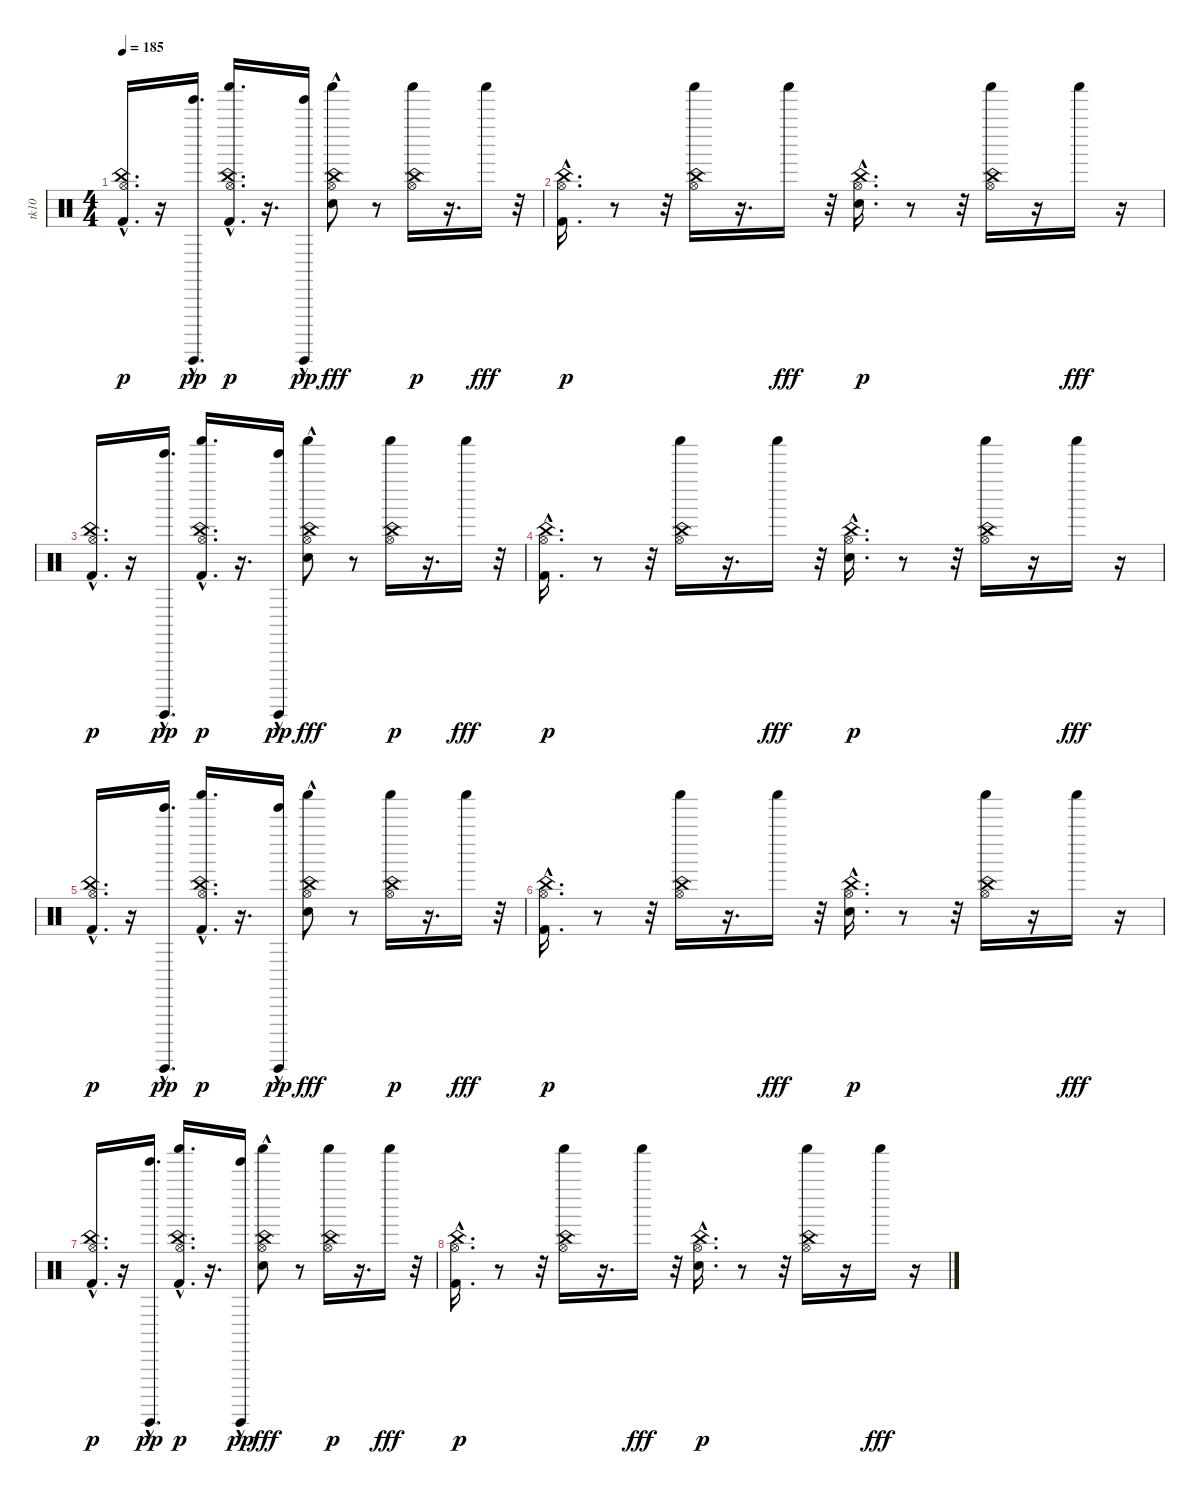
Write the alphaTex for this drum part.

\track ("tk10" "tk10") {instrument percussion}
\staff {score}
\articulation defaults
\ts (4 4)
\tempo 185
\clef neutral
\ks c
("Kick (hit) 2"{hac} "Hi-Hat (open)" "China (hit)").16{d dy p} r.16 ("Guiro (hit)" "Tinkle Bell (hit)"{hac}).16{d dy pp} ("Shaker (hit)" "Kick (hit) 2"{hac} "Hi-Hat (open)" "China (hit)").16{d dy p} r.16{d} ("Guiro (hit)" "Tinkle Bell (hit)"{hac}).16{dy pp} ("Electric Snare (hit)" "Hi-Hat (open)" "China (hit)" "Shaker (hit)"{hac}).8{dy fff} r.8 ("Shaker (hit)" "Hi-Hat (open)" "China (hit)").16{dy p} r.16{d} "Shaker (hit)".16{dy fff} r.32 |
("Kick (hit) 2"{hac} "Hi-Hat (open)" "China (hit)").16{d dy p} r.8 r.32 ("Shaker (hit)" "Hi-Hat (open)" "China (hit)").16 r.16{d} "Shaker (hit)".16{dy fff} r.32 ("Electric Snare (hit)"{hac} "Hi-Hat (open)" "China (hit)").16{d dy p} r.8 r.32 ("Shaker (hit)" "Hi-Hat (open)" "China (hit)").16 r.16 "Shaker (hit)".16{dy fff} r.16 |
("Kick (hit) 2"{hac} "Hi-Hat (open)" "China (hit)").16{d dy p} r.16 ("Guiro (hit)" "Tinkle Bell (hit)"{hac}).16{d dy pp} ("Shaker (hit)" "Kick (hit) 2"{hac} "Hi-Hat (open)" "China (hit)").16{d dy p} r.16{d} ("Guiro (hit)" "Tinkle Bell (hit)"{hac}).16{dy pp} ("Electric Snare (hit)" "Hi-Hat (open)" "China (hit)" "Shaker (hit)"{hac}).8{dy fff} r.8 ("Shaker (hit)" "Hi-Hat (open)" "China (hit)").16{dy p} r.16{d} "Shaker (hit)".16{dy fff} r.32 |
("Kick (hit) 2"{hac} "Hi-Hat (open)" "China (hit)").16{d dy p} r.8 r.32 ("Shaker (hit)" "Hi-Hat (open)" "China (hit)").16 r.16{d} "Shaker (hit)".16{dy fff} r.32 ("Electric Snare (hit)"{hac} "Hi-Hat (open)" "China (hit)").16{d dy p} r.8 r.32 ("Shaker (hit)" "Hi-Hat (open)" "China (hit)").16 r.16 "Shaker (hit)".16{dy fff} r.16 |
("Kick (hit) 2"{hac} "Hi-Hat (open)" "China (hit)").16{d dy p} r.16 ("Guiro (hit)" "Tinkle Bell (hit)"{hac}).16{d dy pp} ("Shaker (hit)" "Kick (hit) 2"{hac} "Hi-Hat (open)" "China (hit)").16{d dy p} r.16{d} ("Guiro (hit)" "Tinkle Bell (hit)"{hac}).16{dy pp} ("Electric Snare (hit)" "Hi-Hat (open)" "China (hit)" "Shaker (hit)"{hac}).8{dy fff} r.8 ("Shaker (hit)" "Hi-Hat (open)" "China (hit)").16{dy p} r.16{d} "Shaker (hit)".16{dy fff} r.32 |
("Kick (hit) 2"{hac} "Hi-Hat (open)" "China (hit)").16{d dy p} r.8 r.32 ("Shaker (hit)" "Hi-Hat (open)" "China (hit)").16 r.16{d} "Shaker (hit)".16{dy fff} r.32 ("Electric Snare (hit)"{hac} "Hi-Hat (open)" "China (hit)").16{d dy p} r.8 r.32 ("Shaker (hit)" "Hi-Hat (open)" "China (hit)").16 r.16 "Shaker (hit)".16{dy fff} r.16 |
("Kick (hit) 2"{hac} "Hi-Hat (open)" "China (hit)").16{d dy p} r.16 ("Guiro (hit)" "Tinkle Bell (hit)"{hac}).16{d dy pp} ("Shaker (hit)" "Kick (hit) 2"{hac} "Hi-Hat (open)" "China (hit)").16{d dy p} r.16{d} ("Guiro (hit)" "Tinkle Bell (hit)"{hac}).16{dy pp} ("Electric Snare (hit)" "Hi-Hat (open)" "China (hit)" "Shaker (hit)"{hac}).8{dy fff} r.8 ("Shaker (hit)" "Hi-Hat (open)" "China (hit)").16{dy p} r.16{d} "Shaker (hit)".16{dy fff} r.32 |
("Kick (hit) 2"{hac} "Hi-Hat (open)" "China (hit)").16{d dy p} r.8 r.32 ("Shaker (hit)" "Hi-Hat (open)" "China (hit)").16 r.16{d} "Shaker (hit)".16{dy fff} r.32 ("Electric Snare (hit)"{hac} "Hi-Hat (open)" "China (hit)").16{d dy p} r.8 r.32 ("Shaker (hit)" "Hi-Hat (open)" "China (hit)").16 r.16 "Shaker (hit)".16{dy fff} r.16
